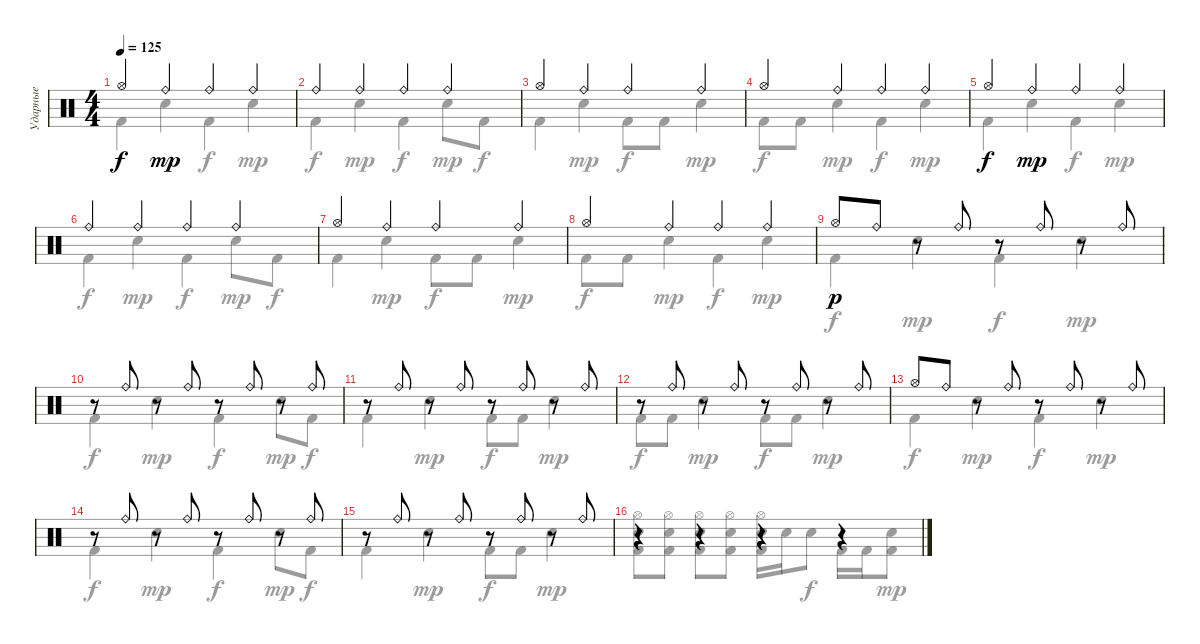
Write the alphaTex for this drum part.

\track ("Ударные" "Ударные") {instrument percussion}
\staff {score}
\articulation defaults
\voice
\ts (4 4)
\tempo 125
\clef neutral
\ks c "Hi-Hat (open)".4{dy f} "Ride (bell)".4{dy mp} "Ride (bell)".4 "Ride (bell)".4
|
"Ride (bell)".4 "Ride (bell)".4 "Ride (bell)".4 "Ride (bell)".4 |
"Hi-Hat (open)".4 "Ride (bell)".4 "Ride (bell)".4 "Ride (bell)".4 |
"Hi-Hat (open)".4 "Ride (bell)".4 "Ride (bell)".4 "Ride (bell)".4 |
"Hi-Hat (open)".4{dy f} "Ride (bell)".4{dy mp} "Ride (bell)".4 "Ride (bell)".4 |
"Ride (bell)".4 "Ride (bell)".4 "Ride (bell)".4 "Ride (bell)".4 |
"Hi-Hat (open)".4 "Ride (bell)".4 "Ride (bell)".4 "Ride (bell)".4 |
"Hi-Hat (open)".4 "Ride (bell)".4 "Ride (bell)".4 "Ride (bell)".4 |
"Hi-Hat (open)".8{dy p} "Ride (bell)".8 r.8 "Ride (bell)".8 r.8 "Ride (bell)".8 r.8 "Ride (bell)".8 |
r.8 "Ride (bell)".8 r.8 "Ride (bell)".8 r.8 "Ride (bell)".8 r.8 "Ride (bell)".8 |
r.8 "Ride (bell)".8 r.8 "Ride (bell)".8 r.8 "Ride (bell)".8 r.8 "Ride (bell)".8 |
r.8 "Ride (bell)".8 r.8 "Ride (bell)".8 r.8 "Ride (bell)".8 r.8 "Ride (bell)".8 |
"Hi-Hat (open)".8 "Ride (bell)".8 r.8 "Ride (bell)".8 r.8 "Ride (bell)".8 r.8 "Ride (bell)".8 |
r.8 "Ride (bell)".8 r.8 "Ride (bell)".8 r.8 "Ride (bell)".8 r.8 "Ride (bell)".8 |
r.8 "Ride (bell)".8 r.8 "Ride (bell)".8 r.8 "Ride (bell)".8 r.8 "Ride (bell)".8 |
r.4 r.4 r.4 r.4
\voice
\clef neutral
\ottava regular
\simile none
\ks c "Kick (hit) 2".4{dy f} "Electric Snare (hit)".4{dy mp} "Kick (hit) 2".4{dy f} "Electric Snare (hit)".4{dy mp}
|
"Kick (hit) 2".4{dy f} "Electric Snare (hit)".4{dy mp} "Kick (hit) 2".4{dy f} "Electric Snare (hit)".8{dy mp} "Kick (hit) 2".8{dy f} |
"Kick (hit) 2".4 "Electric Snare (hit)".4{dy mp} "Kick (hit) 2".8{dy f} "Kick (hit) 2".8 "Electric Snare (hit)".4{dy mp} |
"Kick (hit) 2".8{dy f} "Kick (hit) 2".8 "Electric Snare (hit)".4{dy mp} "Kick (hit) 2".4{dy f} "Electric Snare (hit)".4{dy mp} |
"Kick (hit) 2".4{dy f} "Electric Snare (hit)".4{dy mp} "Kick (hit) 2".4{dy f} "Electric Snare (hit)".4{dy mp} |
"Kick (hit) 2".4{dy f} "Electric Snare (hit)".4{dy mp} "Kick (hit) 2".4{dy f} "Electric Snare (hit)".8{dy mp} "Kick (hit) 2".8{dy f} |
"Kick (hit) 2".4 "Electric Snare (hit)".4{dy mp} "Kick (hit) 2".8{dy f} "Kick (hit) 2".8 "Electric Snare (hit)".4{dy mp} |
"Kick (hit) 2".8{dy f} "Kick (hit) 2".8 "Electric Snare (hit)".4{dy mp} "Kick (hit) 2".4{dy f} "Electric Snare (hit)".4{dy mp} |
"Kick (hit) 2".4{dy f} "Electric Snare (hit)".4{dy mp} "Kick (hit) 2".4{dy f} "Electric Snare (hit)".4{dy mp} |
"Kick (hit) 2".4{dy f} "Electric Snare (hit)".4{dy mp} "Kick (hit) 2".4{dy f} "Electric Snare (hit)".8{dy mp} "Kick (hit) 2".8{dy f} |
"Kick (hit) 2".4 "Electric Snare (hit)".4{dy mp} "Kick (hit) 2".8{dy f} "Kick (hit) 2".8 "Electric Snare (hit)".4{dy mp} |
"Kick (hit) 2".8{dy f} "Kick (hit) 2".8 "Electric Snare (hit)".4{dy mp} "Kick (hit) 2".8{dy f} "Kick (hit) 2".8 "Electric Snare (hit)".4{dy mp} |
"Kick (hit) 2".4{dy f} "Electric Snare (hit)".4{dy mp} "Kick (hit) 2".4{dy f} "Electric Snare (hit)".4{dy mp} |
"Kick (hit) 2".4{dy f} "Electric Snare (hit)".4{dy mp} "Kick (hit) 2".4{dy f} "Electric Snare (hit)".8{dy mp} "Kick (hit) 2".8{dy f} |
"Kick (hit) 2".4 "Electric Snare (hit)".4{dy mp} "Kick (hit) 2".8{dy f} "Kick (hit) 2".8 "Electric Snare (hit)".4{dy mp} |
("Kick (hit) 2" "Electric Snare (hit)" "Hi-Hat (open)").8 ("Kick (hit) 2" "Electric Snare (hit)" "Hi-Hat (open)").8 ("Kick (hit) 2" "Electric Snare (hit)" "Hi-Hat (open)").8 ("Kick (hit) 2" "Electric Snare (hit)" "Hi-Hat (open)").8 ("Kick (hit) 2" "Electric Snare (hit)" "Hi-Hat (open)").16 "Electric Snare (hit)".16 "Electric Snare (hit)".8{dy f} "Kick (hit) 2".16 "Kick (hit) 2".16 ("Kick (hit) 2" "Electric Snare (hit)").8{dy mp}
